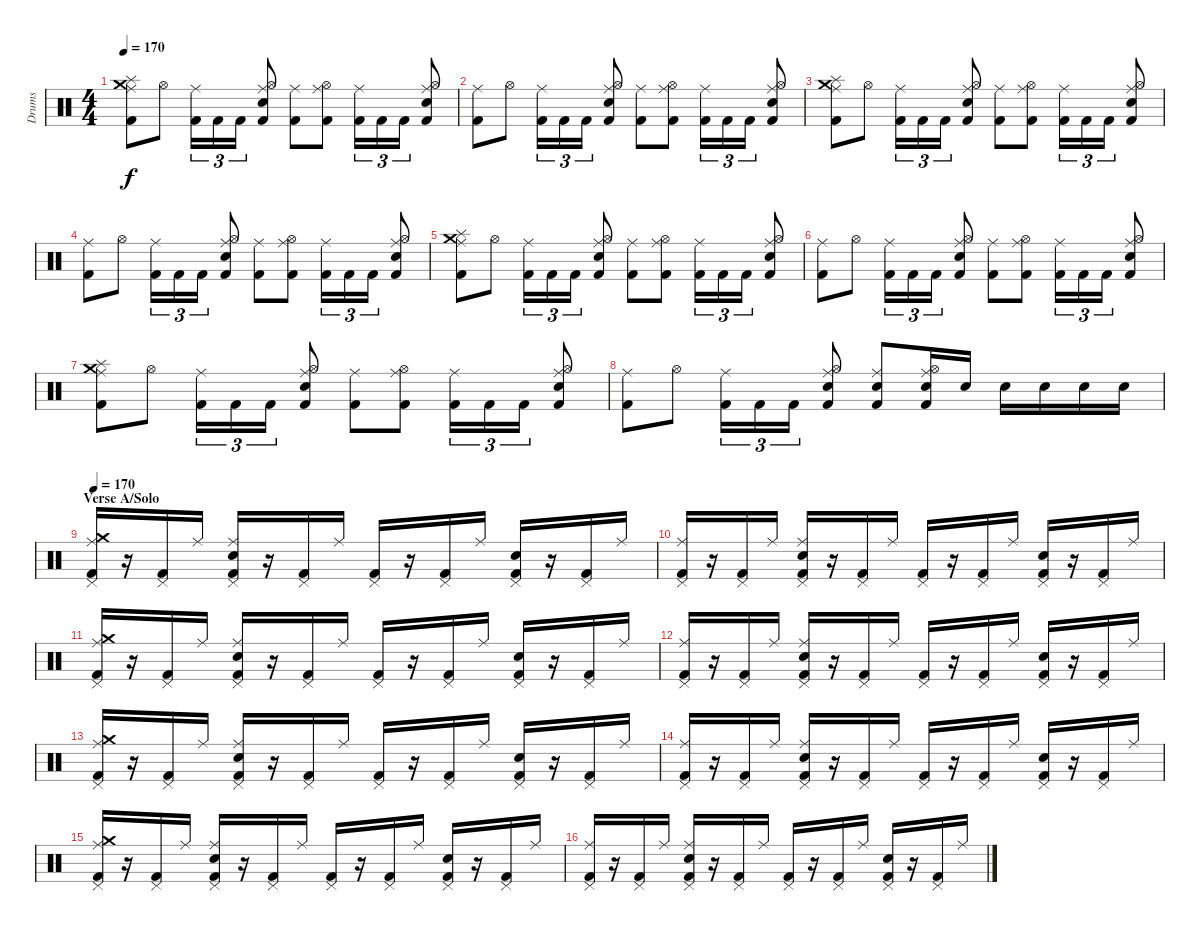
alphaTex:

\track ("Drums" "Drums") {instrument percussion}
\staff {score}
\articulation defaults
\ts (4 4)
\tempo 170
\clef neutral
\ks c
("Kick (hit) 2" "Splash (hit)" "Crash medium (hit)" "Ride (middle)").8{dy f} "Hi-Hat (open)".8 ("Kick (hit) 2" "Ride (middle)").16{tu (3 2)} "Kick (hit) 2".16{tu (3 2)} "Kick (hit) 2".16{tu (3 2)} ("Kick (hit) 2" "Snare (hit) 2" "Hi-Hat (open)" "Ride (middle)").8 ("Kick (hit) 2" "Ride (middle)").8 ("Kick (hit) 2" "Hi-Hat (open)" "Ride (middle)").8 ("Kick (hit) 2" "Ride (middle)").16{tu (3 2)} "Kick (hit) 2".16{tu (3 2)} "Kick (hit) 2".16{tu (3 2)} ("Kick (hit) 2" "Snare (hit) 2" "Hi-Hat (open)" "Ride (middle)").8 |
("Kick (hit) 2" "Ride (middle)").8 "Hi-Hat (open)".8 ("Kick (hit) 2" "Ride (middle)").16{tu (3 2)} "Kick (hit) 2".16{tu (3 2)} "Kick (hit) 2".16{tu (3 2)} ("Kick (hit) 2" "Snare (hit) 2" "Hi-Hat (open)" "Ride (middle)").8 ("Kick (hit) 2" "Ride (middle)").8 ("Kick (hit) 2" "Hi-Hat (open)" "Ride (middle)").8 ("Kick (hit) 2" "Ride (middle)").16{tu (3 2)} "Kick (hit) 2".16{tu (3 2)} "Kick (hit) 2".16{tu (3 2)} ("Kick (hit) 2" "Snare (hit) 2" "Hi-Hat (open)" "Ride (middle)").8 |
("Kick (hit) 2" "Splash (hit)" "Crash medium (hit)" "Ride (middle)").8 "Hi-Hat (open)".8 ("Kick (hit) 2" "Ride (middle)").16{tu (3 2)} "Kick (hit) 2".16{tu (3 2)} "Kick (hit) 2".16{tu (3 2)} ("Kick (hit) 2" "Snare (hit) 2" "Hi-Hat (open)" "Ride (middle)").8 ("Kick (hit) 2" "Ride (middle)").8 ("Kick (hit) 2" "Hi-Hat (open)" "Ride (middle)").8 ("Kick (hit) 2" "Ride (middle)").16{tu (3 2)} "Kick (hit) 2".16{tu (3 2)} "Kick (hit) 2".16{tu (3 2)} ("Kick (hit) 2" "Snare (hit) 2" "Hi-Hat (open)" "Ride (middle)").8 |
("Kick (hit) 2" "Ride (middle)").8 "Hi-Hat (open)".8 ("Kick (hit) 2" "Ride (middle)").16{tu (3 2)} "Kick (hit) 2".16{tu (3 2)} "Kick (hit) 2".16{tu (3 2)} ("Kick (hit) 2" "Snare (hit) 2" "Hi-Hat (open)" "Ride (middle)").8 ("Kick (hit) 2" "Ride (middle)").8 ("Kick (hit) 2" "Hi-Hat (open)" "Ride (middle)").8 ("Kick (hit) 2" "Ride (middle)").16{tu (3 2)} "Kick (hit) 2".16{tu (3 2)} "Kick (hit) 2".16{tu (3 2)} ("Kick (hit) 2" "Snare (hit) 2" "Hi-Hat (open)" "Ride (middle)").8 |
("Kick (hit) 2" "Splash (hit)" "Crash medium (hit)" "Ride (middle)").8 "Hi-Hat (open)".8 ("Kick (hit) 2" "Ride (middle)").16{tu (3 2)} "Kick (hit) 2".16{tu (3 2)} "Kick (hit) 2".16{tu (3 2)} ("Kick (hit) 2" "Snare (hit) 2" "Hi-Hat (open)" "Ride (middle)").8 ("Kick (hit) 2" "Ride (middle)").8 ("Kick (hit) 2" "Hi-Hat (open)" "Ride (middle)").8 ("Kick (hit) 2" "Ride (middle)").16{tu (3 2)} "Kick (hit) 2".16{tu (3 2)} "Kick (hit) 2".16{tu (3 2)} ("Kick (hit) 2" "Snare (hit) 2" "Hi-Hat (open)" "Ride (middle)").8 |
("Kick (hit) 2" "Ride (middle)").8 "Hi-Hat (open)".8 ("Kick (hit) 2" "Ride (middle)").16{tu (3 2)} "Kick (hit) 2".16{tu (3 2)} "Kick (hit) 2".16{tu (3 2)} ("Kick (hit) 2" "Snare (hit) 2" "Hi-Hat (open)" "Ride (middle)").8 ("Kick (hit) 2" "Ride (middle)").8 ("Kick (hit) 2" "Hi-Hat (open)" "Ride (middle)").8 ("Kick (hit) 2" "Ride (middle)").16{tu (3 2)} "Kick (hit) 2".16{tu (3 2)} "Kick (hit) 2".16{tu (3 2)} ("Kick (hit) 2" "Snare (hit) 2" "Hi-Hat (open)" "Ride (middle)").8 |
("Kick (hit) 2" "Splash (hit)" "Crash medium (hit)" "Ride (middle)").8 "Hi-Hat (open)".8 ("Kick (hit) 2" "Ride (middle)").16{tu (3 2)} "Kick (hit) 2".16{tu (3 2)} "Kick (hit) 2".16{tu (3 2)} ("Kick (hit) 2" "Snare (hit) 2" "Hi-Hat (open)" "Ride (middle)").8 ("Kick (hit) 2" "Ride (middle)").8 ("Kick (hit) 2" "Hi-Hat (open)" "Ride (middle)").8 ("Kick (hit) 2" "Ride (middle)").16{tu (3 2)} "Kick (hit) 2".16{tu (3 2)} "Kick (hit) 2".16{tu (3 2)} ("Kick (hit) 2" "Snare (hit) 2" "Hi-Hat (open)" "Ride (middle)").8 |
("Kick (hit) 2" "Ride (middle)").8 "Hi-Hat (open)".8 ("Kick (hit) 2" "Ride (middle)").16{tu (3 2)} "Kick (hit) 2".16{tu (3 2)} "Kick (hit) 2".16{tu (3 2)} ("Kick (hit) 2" "Snare (hit) 2" "Hi-Hat (open)" "Ride (middle)").8 ("Kick (hit) 2" "Snare (hit) 2" "Ride (middle)").8 ("Kick (hit) 2" "Snare (hit) 2" "Hi-Hat (open)" "Ride (middle)").16 "Snare (hit) 2".16 "Snare (hit) 2".16 "Snare (hit) 2".16 "Snare (hit) 2".16 "Snare (hit) 2".16 |
\section ("" "Verse A/Solo")
\tempo 170
("Kick (hit) 2" "Pedal Hi-Hat (hit)" "Ride (middle)" "Crash medium (hit)").16 r.16 ("Kick (hit) 2" "Pedal Hi-Hat (hit)").16 "Ride (middle)".16 ("Kick (hit) 2" "Pedal Hi-Hat (hit)" "Snare (hit) 2" "Ride (middle)").16 r.16 ("Kick (hit) 2" "Pedal Hi-Hat (hit)").16 "Ride (middle)".16 ("Kick (hit) 2" "Pedal Hi-Hat (hit)").16 r.16 ("Kick (hit) 2" "Pedal Hi-Hat (hit)").16 "Ride (middle)".16 ("Kick (hit) 2" "Pedal Hi-Hat (hit)" "Snare (hit) 2").16 r.16 ("Kick (hit) 2" "Pedal Hi-Hat (hit)").16 "Ride (middle)".16 |
("Kick (hit) 2" "Pedal Hi-Hat (hit)" "Ride (middle)").16 r.16 ("Kick (hit) 2" "Pedal Hi-Hat (hit)").16 "Ride (middle)".16 ("Kick (hit) 2" "Pedal Hi-Hat (hit)" "Snare (hit) 2" "Ride (middle)").16 r.16 ("Kick (hit) 2" "Pedal Hi-Hat (hit)").16 "Ride (middle)".16 ("Kick (hit) 2" "Pedal Hi-Hat (hit)").16 r.16 ("Kick (hit) 2" "Pedal Hi-Hat (hit)").16 "Ride (middle)".16 ("Kick (hit) 2" "Pedal Hi-Hat (hit)" "Snare (hit) 2").16 r.16 ("Kick (hit) 2" "Pedal Hi-Hat (hit)").16 "Ride (middle)".16 |
("Kick (hit) 2" "Pedal Hi-Hat (hit)" "Ride (middle)" "Crash medium (hit)").16 r.16 ("Kick (hit) 2" "Pedal Hi-Hat (hit)").16 "Ride (middle)".16 ("Kick (hit) 2" "Pedal Hi-Hat (hit)" "Snare (hit) 2" "Ride (middle)").16 r.16 ("Kick (hit) 2" "Pedal Hi-Hat (hit)").16 "Ride (middle)".16 ("Kick (hit) 2" "Pedal Hi-Hat (hit)").16 r.16 ("Kick (hit) 2" "Pedal Hi-Hat (hit)").16 "Ride (middle)".16 ("Kick (hit) 2" "Pedal Hi-Hat (hit)" "Snare (hit) 2").16 r.16 ("Kick (hit) 2" "Pedal Hi-Hat (hit)").16 "Ride (middle)".16 |
("Kick (hit) 2" "Pedal Hi-Hat (hit)" "Ride (middle)").16 r.16 ("Kick (hit) 2" "Pedal Hi-Hat (hit)").16 "Ride (middle)".16 ("Kick (hit) 2" "Pedal Hi-Hat (hit)" "Snare (hit) 2" "Ride (middle)").16 r.16 ("Kick (hit) 2" "Pedal Hi-Hat (hit)").16 "Ride (middle)".16 ("Kick (hit) 2" "Pedal Hi-Hat (hit)").16 r.16 ("Kick (hit) 2" "Pedal Hi-Hat (hit)").16 "Ride (middle)".16 ("Kick (hit) 2" "Pedal Hi-Hat (hit)" "Snare (hit) 2").16 r.16 ("Kick (hit) 2" "Pedal Hi-Hat (hit)").16 "Ride (middle)".16 |
("Kick (hit) 2" "Pedal Hi-Hat (hit)" "Ride (middle)" "Crash medium (hit)").16 r.16 ("Kick (hit) 2" "Pedal Hi-Hat (hit)").16 "Ride (middle)".16 ("Kick (hit) 2" "Pedal Hi-Hat (hit)" "Snare (hit) 2" "Ride (middle)").16 r.16 ("Kick (hit) 2" "Pedal Hi-Hat (hit)").16 "Ride (middle)".16 ("Kick (hit) 2" "Pedal Hi-Hat (hit)").16 r.16 ("Kick (hit) 2" "Pedal Hi-Hat (hit)").16 "Ride (middle)".16 ("Kick (hit) 2" "Pedal Hi-Hat (hit)" "Snare (hit) 2").16 r.16 ("Kick (hit) 2" "Pedal Hi-Hat (hit)").16 "Ride (middle)".16 |
("Kick (hit) 2" "Pedal Hi-Hat (hit)" "Ride (middle)").16 r.16 ("Kick (hit) 2" "Pedal Hi-Hat (hit)").16 "Ride (middle)".16 ("Kick (hit) 2" "Pedal Hi-Hat (hit)" "Snare (hit) 2" "Ride (middle)").16 r.16 ("Kick (hit) 2" "Pedal Hi-Hat (hit)").16 "Ride (middle)".16 ("Kick (hit) 2" "Pedal Hi-Hat (hit)").16 r.16 ("Kick (hit) 2" "Pedal Hi-Hat (hit)").16 "Ride (middle)".16 ("Kick (hit) 2" "Pedal Hi-Hat (hit)" "Snare (hit) 2").16 r.16 ("Kick (hit) 2" "Pedal Hi-Hat (hit)").16 "Ride (middle)".16 |
("Kick (hit) 2" "Pedal Hi-Hat (hit)" "Ride (middle)" "Crash medium (hit)").16 r.16 ("Kick (hit) 2" "Pedal Hi-Hat (hit)").16 "Ride (middle)".16 ("Kick (hit) 2" "Pedal Hi-Hat (hit)" "Snare (hit) 2" "Ride (middle)").16 r.16 ("Kick (hit) 2" "Pedal Hi-Hat (hit)").16 "Ride (middle)".16 ("Kick (hit) 2" "Pedal Hi-Hat (hit)").16 r.16 ("Kick (hit) 2" "Pedal Hi-Hat (hit)").16 "Ride (middle)".16 ("Kick (hit) 2" "Pedal Hi-Hat (hit)" "Snare (hit) 2").16 r.16 ("Kick (hit) 2" "Pedal Hi-Hat (hit)").16 "Ride (middle)".16 |
("Kick (hit) 2" "Pedal Hi-Hat (hit)" "Ride (middle)").16 r.16 ("Kick (hit) 2" "Pedal Hi-Hat (hit)").16 "Ride (middle)".16 ("Kick (hit) 2" "Pedal Hi-Hat (hit)" "Snare (hit) 2" "Ride (middle)").16 r.16 ("Kick (hit) 2" "Pedal Hi-Hat (hit)").16 "Ride (middle)".16 ("Kick (hit) 2" "Pedal Hi-Hat (hit)").16 r.16 ("Kick (hit) 2" "Pedal Hi-Hat (hit)").16 "Ride (middle)".16 ("Kick (hit) 2" "Pedal Hi-Hat (hit)" "Snare (hit) 2").16 r.16 ("Kick (hit) 2" "Pedal Hi-Hat (hit)").16 "Ride (middle)".16
